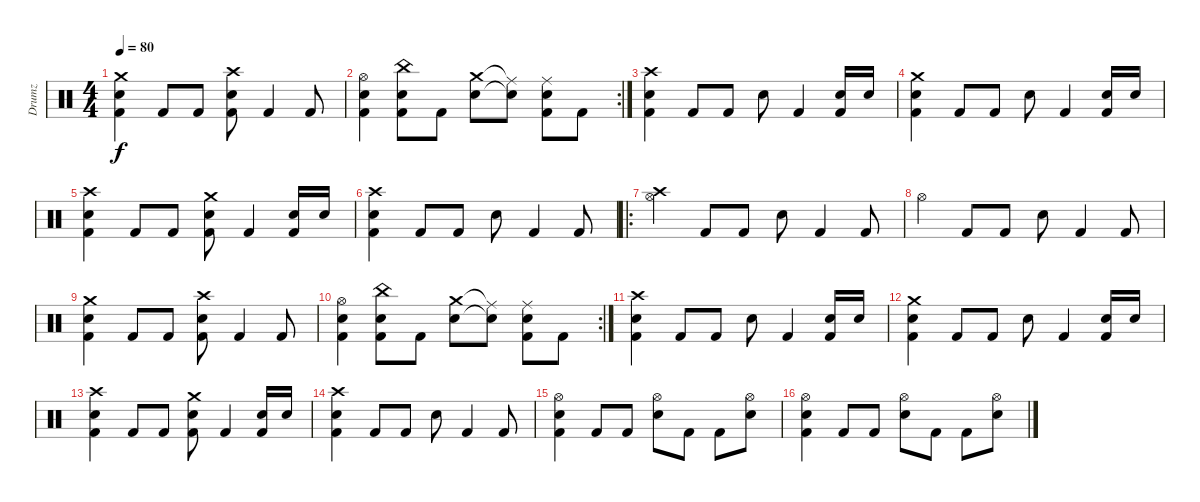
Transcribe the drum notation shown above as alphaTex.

\track ("Drumz" "Drumz") {instrument percussion}
\staff {score}
\articulation defaults
\ts (4 4)
\tempo 80
\clef neutral
\ks c
("Crash medium (hit)" "Snare (hit) 2" "Kick (hit) 2").4{dy f} "Kick (hit) 2".8 "Kick (hit) 2".8 ("Crash high (hit)" "Snare (hit) 2" "Kick (hit) 2").8 "Kick (hit) 2".4 "Kick (hit) 2".8 |
\rc 2
("Hi-Hat (open)" "Snare (hit) 2" "Kick (hit) 2").4 ("China (hit)" "Snare (hit) 2" "Kick (hit) 2").8 "Kick (hit) 2".8 ("Crash medium (hit)" "Snare (hit) 2").8 ("Ride (middle)"{t} "Snare (hit) 2"{t}).8 ("Ride (middle)" "Snare (hit) 2" "Kick (hit) 2").8 "Kick (hit) 2".8 |
("Crash high (hit)" "Snare (hit) 2" "Kick (hit) 2").4 "Kick (hit) 2".8 "Kick (hit) 2".8 "Snare (hit) 2".8 "Kick (hit) 2".4 ("Snare (hit) 2" "Kick (hit) 2").16 "Snare (hit) 2".16 |
("Crash medium (hit)" "Snare (hit) 2" "Kick (hit) 2").4 "Kick (hit) 2".8 "Kick (hit) 2".8 "Snare (hit) 2".8 "Kick (hit) 2".4 ("Snare (hit) 2" "Kick (hit) 2").16 "Snare (hit) 2".16 |
("Crash high (hit)" "Snare (hit) 2" "Kick (hit) 2").4 "Kick (hit) 2".8 "Kick (hit) 2".8 ("Crash medium (hit)" "Snare (hit) 2" "Kick (hit) 2").8 "Kick (hit) 2".4 ("Snare (hit) 2" "Kick (hit) 2").16 "Snare (hit) 2".16 |
("Crash high (hit)" "Snare (hit) 2" "Kick (hit) 2").4 "Kick (hit) 2".8 "Kick (hit) 2".8 "Snare (hit) 2".8 "Kick (hit) 2".4 "Kick (hit) 2".8 |
\ro
("Hi-Hat (open)" "Crash high (hit)").4{volume 16} "Kick (hit) 2".8 "Kick (hit) 2".8 "Snare (hit) 2".8 "Kick (hit) 2".4 "Kick (hit) 2".8 |
"Hi-Hat (open)".4 "Kick (hit) 2".8 "Kick (hit) 2".8 "Snare (hit) 2".8 "Kick (hit) 2".4 "Kick (hit) 2".8 |
("Crash medium (hit)" "Snare (hit) 2" "Kick (hit) 2").4 "Kick (hit) 2".8 "Kick (hit) 2".8 ("Crash high (hit)" "Snare (hit) 2" "Kick (hit) 2").8 "Kick (hit) 2".4 "Kick (hit) 2".8 |
\rc 2
("Hi-Hat (open)" "Snare (hit) 2" "Kick (hit) 2").4 ("China (hit)" "Snare (hit) 2" "Kick (hit) 2").8 "Kick (hit) 2".8 ("Crash medium (hit)" "Snare (hit) 2").8 ("Ride (middle)"{t} "Snare (hit) 2"{t}).8 ("Ride (middle)" "Snare (hit) 2" "Kick (hit) 2").8 "Kick (hit) 2".8 |
("Crash high (hit)" "Snare (hit) 2" "Kick (hit) 2").4 "Kick (hit) 2".8 "Kick (hit) 2".8 "Snare (hit) 2".8 "Kick (hit) 2".4 ("Snare (hit) 2" "Kick (hit) 2").16 "Snare (hit) 2".16 |
("Crash medium (hit)" "Snare (hit) 2" "Kick (hit) 2").4 "Kick (hit) 2".8 "Kick (hit) 2".8 "Snare (hit) 2".8 "Kick (hit) 2".4 ("Snare (hit) 2" "Kick (hit) 2").16 "Snare (hit) 2".16 |
("Crash high (hit)" "Snare (hit) 2" "Kick (hit) 2").4 "Kick (hit) 2".8 "Kick (hit) 2".8 ("Crash medium (hit)" "Snare (hit) 2" "Kick (hit) 2").8 "Kick (hit) 2".4 ("Snare (hit) 2" "Kick (hit) 2").16 "Snare (hit) 2".16 |
("Crash high (hit)" "Snare (hit) 2" "Kick (hit) 2").4 "Kick (hit) 2".8 "Kick (hit) 2".8 "Snare (hit) 2".8 "Kick (hit) 2".4 "Kick (hit) 2".8 |
("Hi-Hat (open)" "Snare (hit) 2" "Kick (hit) 2").4 "Kick (hit) 2".8 "Kick (hit) 2".8 ("Hi-Hat (open)" "Snare (hit) 2").8 "Kick (hit) 2".8 "Kick (hit) 2".8 ("Hi-Hat (open)" "Snare (hit) 2").8 |
("Hi-Hat (open)" "Snare (hit) 2" "Kick (hit) 2").4{volume 0} "Kick (hit) 2".8 "Kick (hit) 2".8 ("Hi-Hat (open)" "Snare (hit) 2").8 "Kick (hit) 2".8 "Kick (hit) 2".8 ("Hi-Hat (open)" "Snare (hit) 2").8
